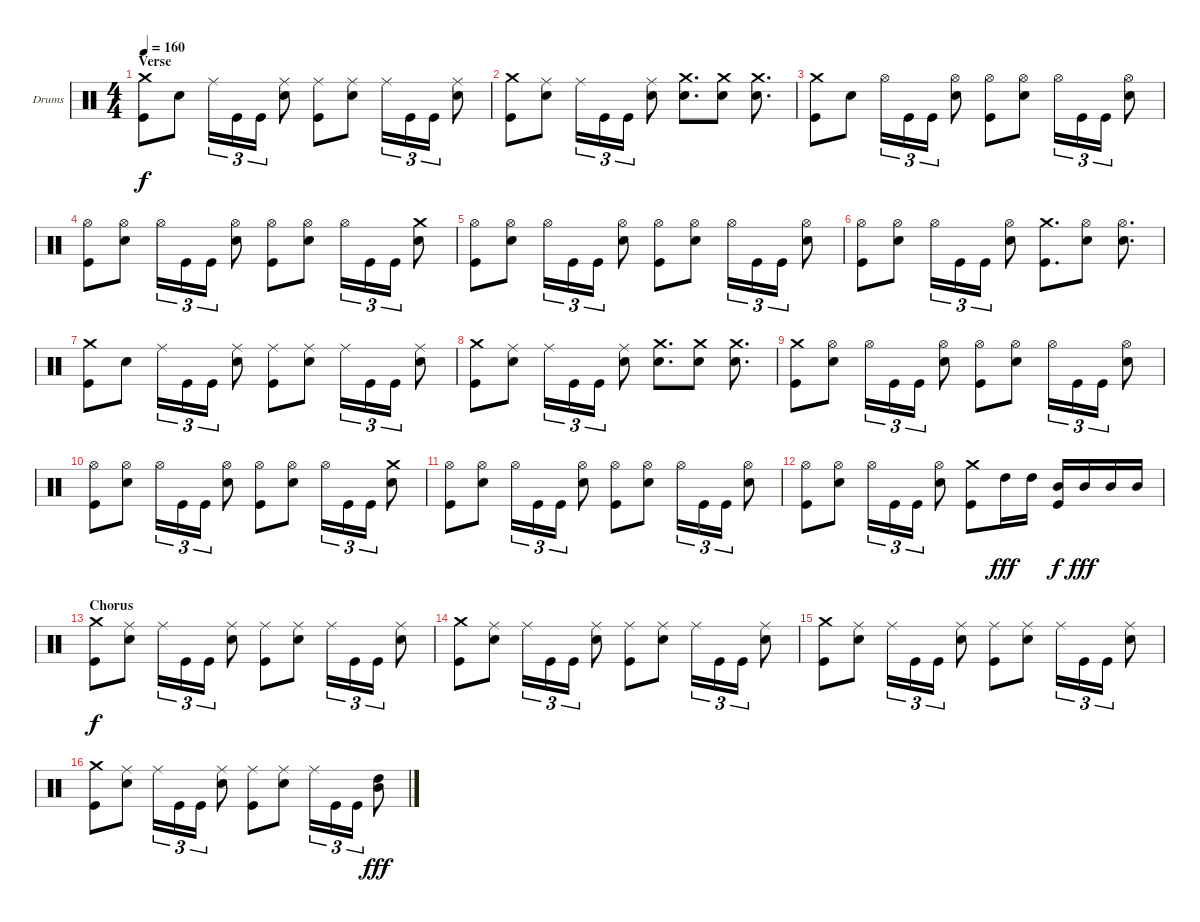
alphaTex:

\bracketExtendMode groupsimilarinstruments
\firstSystemTrackNameOrientation horizontal
\otherSystemsTrackNameOrientation horizontal
\track ("Drums" "Drums") {instrument percussion}
\staff {score}
\articulation defaults
\ts (4 4)
\section ("" "Verse")
\tempo 160
\clef neutral
\ks c
("Crash medium (hit)" "Kick (hit)").8{dy f} "Snare (hit) 2".8 "Ride (middle)".16{tu (3 2)} "Kick (hit)".16{tu (3 2)} "Kick (hit)".16{tu (3 2)} ("Ride (middle)" "Snare (hit) 2").8 ("Ride (middle)" "Kick (hit)").8 ("Ride (middle)" "Snare (hit) 2").8 "Ride (middle)".16{tu (3 2)} "Kick (hit)".16{tu (3 2)} "Kick (hit)".16{tu (3 2)} ("Ride (middle)" "Snare (hit) 2").8 |
("Crash medium (hit)" "Kick (hit)").8 ("Ride (middle)" "Snare (hit) 2").8 "Ride (middle)".16{tu (3 2)} "Kick (hit)".16{tu (3 2)} "Kick (hit)".16{tu (3 2)} ("Ride (middle)" "Snare (hit) 2").8 ("Crash medium (hit)" "Snare (hit) 2").8{d} ("Crash medium (hit)" "Snare (hit) 2").8 ("Crash medium (hit)" "Snare (hit) 2").8{d} |
("Crash medium (hit)" "Kick (hit)").8 "Snare (hit) 2".8 "Hi-Hat (open)".16{tu (3 2)} "Kick (hit)".16{tu (3 2)} "Kick (hit)".16{tu (3 2)} ("Hi-Hat (open)" "Snare (hit) 2").8 ("Hi-Hat (open)" "Kick (hit)").8 ("Hi-Hat (open)" "Snare (hit) 2").8 "Hi-Hat (open)".16{tu (3 2)} "Kick (hit)".16{tu (3 2)} "Kick (hit)".16{tu (3 2)} ("Hi-Hat (open)" "Snare (hit) 2").8 |
("Hi-Hat (open)" "Kick (hit)").8 ("Hi-Hat (open)" "Snare (hit) 2").8 "Hi-Hat (open)".16{tu (3 2)} "Kick (hit)".16{tu (3 2)} "Kick (hit)".16{tu (3 2)} ("Hi-Hat (open)" "Snare (hit) 2").8 ("Hi-Hat (open)" "Kick (hit)").8 ("Hi-Hat (open)" "Snare (hit) 2").8 "Hi-Hat (open)".16{tu (3 2)} "Kick (hit)".16{tu (3 2)} "Kick (hit)".16{tu (3 2)} ("Crash medium (hit)" "Snare (hit) 2").8 |
("Kick (hit)" "Hi-Hat (open)").8 ("Hi-Hat (open)" "Snare (hit) 2").8 "Hi-Hat (open)".16{tu (3 2)} "Kick (hit)".16{tu (3 2)} "Kick (hit)".16{tu (3 2)} ("Hi-Hat (open)" "Snare (hit) 2").8 ("Hi-Hat (open)" "Kick (hit)").8 ("Hi-Hat (open)" "Snare (hit) 2").8 "Hi-Hat (open)".16{tu (3 2)} "Kick (hit)".16{tu (3 2)} "Kick (hit)".16{tu (3 2)} ("Hi-Hat (open)" "Snare (hit) 2").8 |
("Hi-Hat (open)" "Kick (hit)").8 ("Hi-Hat (open)" "Snare (hit) 2").8 "Hi-Hat (open)".16{tu (3 2)} "Kick (hit)".16{tu (3 2)} "Kick (hit)".16{tu (3 2)} ("Hi-Hat (open)" "Snare (hit) 2").8 ("Crash medium (hit)" "Kick (hit)").8{d} ("Hi-Hat (open)" "Snare (hit) 2").8 ("Hi-Hat (open)" "Snare (hit) 2").8{d} |
("Crash medium (hit)" "Kick (hit)").8 "Snare (hit) 2".8 "Ride (middle)".16{tu (3 2)} "Kick (hit)".16{tu (3 2)} "Kick (hit)".16{tu (3 2)} ("Ride (middle)" "Snare (hit) 2").8 ("Ride (middle)" "Kick (hit)").8 ("Ride (middle)" "Snare (hit) 2").8 "Ride (middle)".16{tu (3 2)} "Kick (hit)".16{tu (3 2)} "Kick (hit)".16{tu (3 2)} ("Ride (middle)" "Snare (hit) 2").8 |
("Crash medium (hit)" "Kick (hit)").8 ("Ride (middle)" "Snare (hit) 2").8 "Ride (middle)".16{tu (3 2)} "Kick (hit)".16{tu (3 2)} "Kick (hit)".16{tu (3 2)} ("Ride (middle)" "Snare (hit) 2").8 ("Crash medium (hit)" "Snare (hit) 2").8{d} ("Crash medium (hit)" "Snare (hit) 2").8 ("Crash medium (hit)" "Snare (hit) 2").8{d} |
("Crash medium (hit)" "Kick (hit)").8 ("Snare (hit) 2" "Hi-Hat (open)").8 "Hi-Hat (open)".16{tu (3 2)} "Kick (hit)".16{tu (3 2)} "Kick (hit)".16{tu (3 2)} ("Hi-Hat (open)" "Snare (hit) 2").8 ("Hi-Hat (open)" "Kick (hit)").8 ("Hi-Hat (open)" "Snare (hit) 2").8 "Hi-Hat (open)".16{tu (3 2)} "Kick (hit)".16{tu (3 2)} "Kick (hit)".16{tu (3 2)} ("Hi-Hat (open)" "Snare (hit) 2").8 |
("Hi-Hat (open)" "Kick (hit)").8 ("Hi-Hat (open)" "Snare (hit) 2").8 "Hi-Hat (open)".16{tu (3 2)} "Kick (hit)".16{tu (3 2)} "Kick (hit)".16{tu (3 2)} ("Hi-Hat (open)" "Snare (hit) 2").8 ("Hi-Hat (open)" "Kick (hit)").8 ("Hi-Hat (open)" "Snare (hit) 2").8 "Hi-Hat (open)".16{tu (3 2)} "Kick (hit)".16{tu (3 2)} "Kick (hit)".16{tu (3 2)} ("Crash medium (hit)" "Snare (hit) 2").8 |
("Kick (hit)" "Hi-Hat (open)").8 ("Hi-Hat (open)" "Snare (hit) 2").8 "Hi-Hat (open)".16{tu (3 2)} "Kick (hit)".16{tu (3 2)} "Kick (hit)".16{tu (3 2)} ("Hi-Hat (open)" "Snare (hit) 2").8 ("Hi-Hat (open)" "Kick (hit)").8 ("Hi-Hat (open)" "Snare (hit) 2").8 "Hi-Hat (open)".16{tu (3 2)} "Kick (hit)".16{tu (3 2)} "Kick (hit)".16{tu (3 2)} ("Hi-Hat (open)" "Snare (hit) 2").8 |
("Hi-Hat (open)" "Kick (hit)").8 ("Hi-Hat (open)" "Snare (hit) 2").8 "Hi-Hat (open)".16{tu (3 2)} "Kick (hit)".16{tu (3 2)} "Kick (hit)".16{tu (3 2)} ("Hi-Hat (open)" "Snare (hit) 2").8 ("Crash medium (hit)" "Kick (hit)").8 "High Tom (hit)".16{dy fff} "High Tom (hit)".16 ("Kick (hit)" "Mid Tom (hit)").16{dy f} "Mid Tom (hit)".16{dy fff} "Mid Tom (hit)".16 "Mid Tom (hit)".16 |
\section ("" "Chorus")
("Crash medium (hit)" "Kick (hit)").8{dy f} ("Ride (middle)" "Snare (hit) 2").8 "Ride (middle)".16{tu (3 2)} "Kick (hit)".16{tu (3 2)} "Kick (hit)".16{tu (3 2)} ("Ride (middle)" "Snare (hit) 2").8 ("Ride (middle)" "Kick (hit)").8 ("Ride (middle)" "Snare (hit) 2").8 "Ride (middle)".16{tu (3 2)} "Kick (hit)".16{tu (3 2)} "Kick (hit)".16{tu (3 2)} ("Ride (middle)" "Snare (hit) 2").8 |
("Crash medium (hit)" "Kick (hit)").8 ("Ride (middle)" "Snare (hit) 2").8 "Ride (middle)".16{tu (3 2)} "Kick (hit)".16{tu (3 2)} "Kick (hit)".16{tu (3 2)} ("Ride (middle)" "Snare (hit) 2").8 ("Ride (middle)" "Kick (hit)").8 ("Ride (middle)" "Snare (hit) 2").8 "Ride (middle)".16{tu (3 2)} "Kick (hit)".16{tu (3 2)} "Kick (hit)".16{tu (3 2)} ("Ride (middle)" "Snare (hit) 2").8 |
("Crash medium (hit)" "Kick (hit)").8 ("Ride (middle)" "Snare (hit) 2").8 "Ride (middle)".16{tu (3 2)} "Kick (hit)".16{tu (3 2)} "Kick (hit)".16{tu (3 2)} ("Ride (middle)" "Snare (hit) 2").8 ("Ride (middle)" "Kick (hit)").8 ("Ride (middle)" "Snare (hit) 2").8 "Ride (middle)".16{tu (3 2)} "Kick (hit)".16{tu (3 2)} "Kick (hit)".16{tu (3 2)} ("Ride (middle)" "Snare (hit) 2").8 |
("Crash medium (hit)" "Kick (hit)").8 ("Ride (middle)" "Snare (hit) 2").8 "Ride (middle)".16{tu (3 2)} "Kick (hit)".16{tu (3 2)} "Kick (hit)".16{tu (3 2)} ("Ride (middle)" "Snare (hit) 2").8 ("Ride (middle)" "Kick (hit)").8 ("Ride (middle)" "Snare (hit) 2").8 "Ride (middle)".16{tu (3 2)} "Kick (hit)".16{tu (3 2)} "Kick (hit)".16{tu (3 2)} ("High Tom (hit)" "Mid Tom (hit)").8{dy fff}
